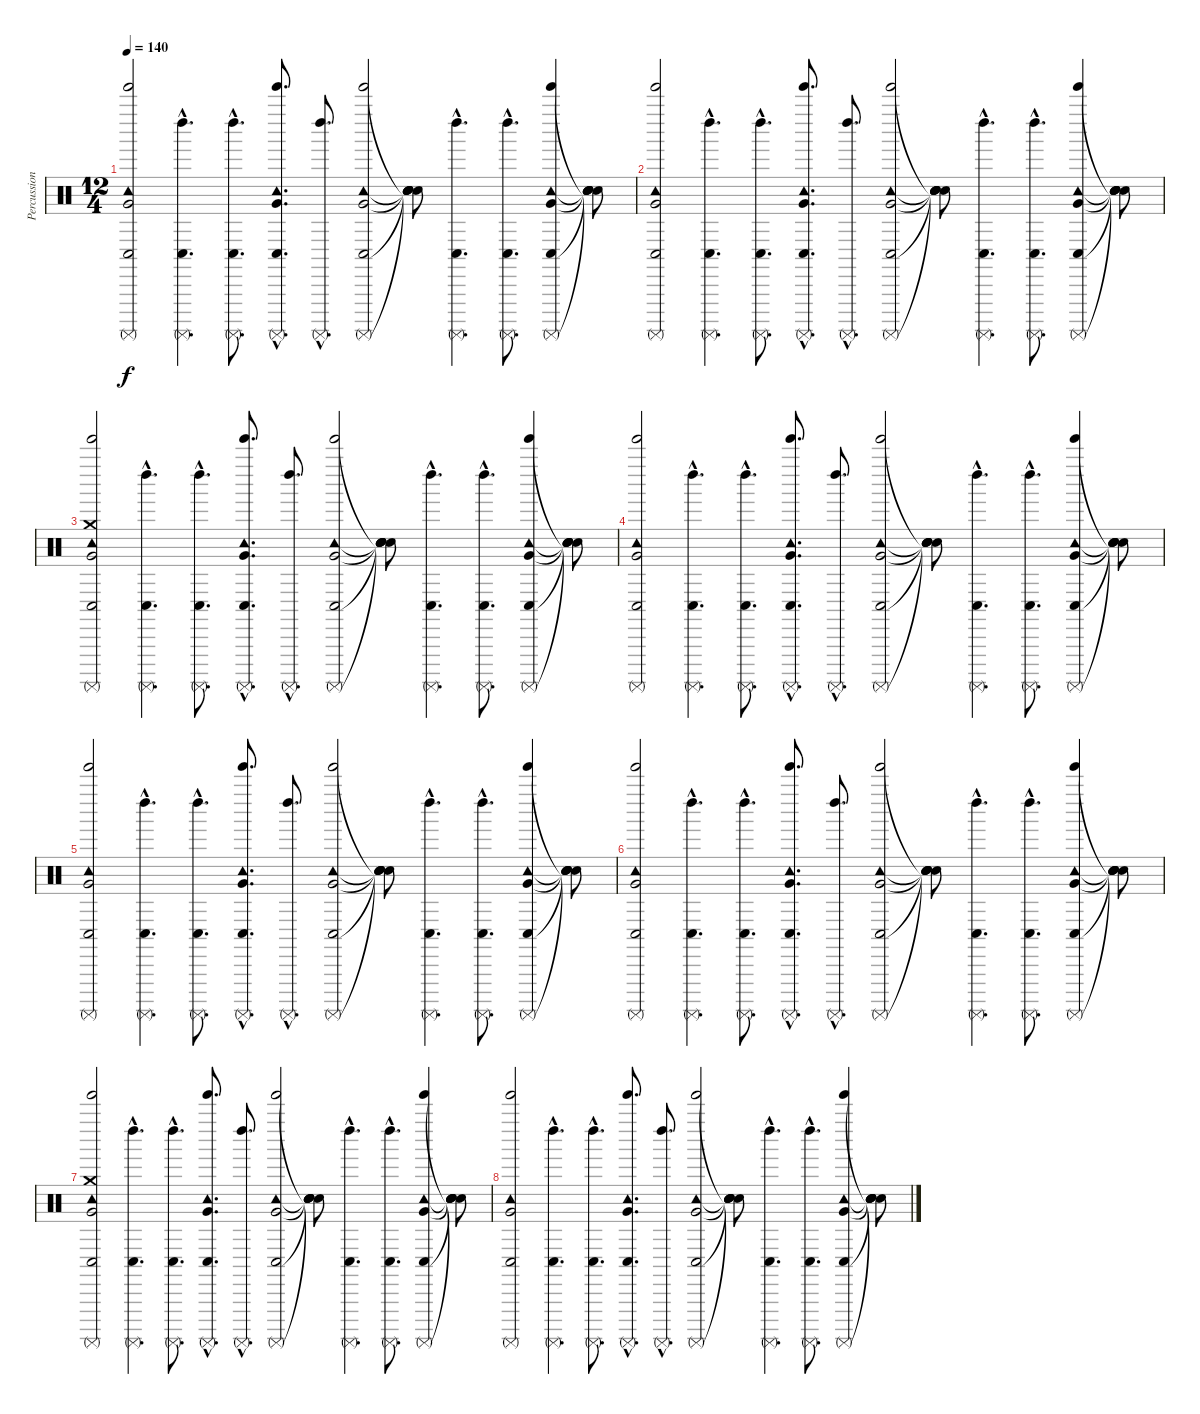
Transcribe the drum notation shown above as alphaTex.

\track ("Percussions" "Percussion") {instrument percussion}
\staff {score}
\articulation defaults
\ts (12 4)
\tempo 140
\clef neutral
\ks c
("Conga low (hit)" "Tinkle Bell (hit)" "Very Low Tom (hit)" "Tambourine (hit)" "Surdo (mute)").2{dy f} ("Conga low (hit)"{hac} "Left Maraca (hit)"{hac} "Surdo (mute)"{hac}).4{d} ("Conga low (hit)"{hac} "Left Maraca (hit)"{hac} "Surdo (mute)"{hac}).8{d} ("Conga low (hit)"{hac} "Tinkle Bell (hit)"{hac} "Very Low Tom (hit)"{hac} "Tambourine (hit)"{hac} "Surdo (mute)"{hac}).8{d} ("Left Maraca (hit)"{hac} "Surdo (mute)"{hac}).8{d} ("Conga low (hit)" "Tinkle Bell (hit)" "Very Low Tom (hit)" "Tambourine (hit)" "Surdo (mute)").2 ("Snare (hit)"{t} "Snare (hit)"{t} "Snare (hit)"{t} "Snare (hit)"{t} "Snare (hit)"{t}).8 ("Conga low (hit)"{hac} "Left Maraca (hit)"{hac} "Surdo (mute)"{hac}).4{d} ("Conga low (hit)"{hac} "Left Maraca (hit)"{hac} "Surdo (mute)"{hac}).8{d} ("Conga low (hit)" "Tinkle Bell (hit)" "Very Low Tom (hit)" "Tambourine (hit)" "Surdo (mute)").4 ("Snare (hit)"{t} "Snare (hit)"{t} "Snare (hit)"{t} "Snare (hit)"{t} "Snare (hit)"{t}).8 |
("Conga low (hit)" "Tinkle Bell (hit)" "Very Low Tom (hit)" "Tambourine (hit)" "Surdo (mute)").2 ("Conga low (hit)"{hac} "Left Maraca (hit)"{hac} "Surdo (mute)"{hac}).4{d} ("Conga low (hit)"{hac} "Left Maraca (hit)"{hac} "Surdo (mute)"{hac}).8{d} ("Conga low (hit)"{hac} "Tinkle Bell (hit)"{hac} "Very Low Tom (hit)"{hac} "Tambourine (hit)"{hac} "Surdo (mute)"{hac}).8{d} ("Left Maraca (hit)"{hac} "Surdo (mute)"{hac}).8{d} ("Conga low (hit)" "Tinkle Bell (hit)" "Very Low Tom (hit)" "Tambourine (hit)" "Surdo (mute)").2 ("Snare (hit)"{t} "Snare (hit)"{t} "Snare (hit)"{t} "Snare (hit)"{t} "Snare (hit)"{t}).8 ("Conga low (hit)"{hac} "Left Maraca (hit)"{hac} "Surdo (mute)"{hac}).4{d} ("Conga low (hit)"{hac} "Left Maraca (hit)"{hac} "Surdo (mute)"{hac}).8{d} ("Conga low (hit)" "Tinkle Bell (hit)" "Very Low Tom (hit)" "Tambourine (hit)" "Surdo (mute)").4 ("Snare (hit)"{t} "Snare (hit)"{t} "Snare (hit)"{t} "Snare (hit)"{t} "Snare (hit)"{t}).8 |
("Conga low (hit)" "Tinkle Bell (hit)" "Very Low Tom (hit)" "Tambourine (hit)" "Crash medium (hit)" "Surdo (mute)").2 ("Conga low (hit)"{hac} "Left Maraca (hit)"{hac} "Surdo (mute)"{hac}).4{d} ("Conga low (hit)"{hac} "Left Maraca (hit)"{hac} "Surdo (mute)"{hac}).8{d} ("Conga low (hit)"{hac} "Tinkle Bell (hit)"{hac} "Very Low Tom (hit)"{hac} "Tambourine (hit)"{hac} "Surdo (mute)"{hac}).8{d} ("Left Maraca (hit)"{hac} "Surdo (mute)"{hac}).8{d} ("Conga low (hit)" "Tinkle Bell (hit)" "Very Low Tom (hit)" "Tambourine (hit)" "Surdo (mute)").2 ("Snare (hit)"{t} "Snare (hit)"{t} "Snare (hit)"{t} "Snare (hit)"{t} "Snare (hit)"{t}).8 ("Conga low (hit)"{hac} "Left Maraca (hit)"{hac} "Surdo (mute)"{hac}).4{d} ("Conga low (hit)"{hac} "Left Maraca (hit)"{hac} "Surdo (mute)"{hac}).8{d} ("Conga low (hit)" "Tinkle Bell (hit)" "Very Low Tom (hit)" "Tambourine (hit)" "Surdo (mute)").4 ("Snare (hit)"{t} "Snare (hit)"{t} "Snare (hit)"{t} "Snare (hit)"{t} "Snare (hit)"{t}).8 |
("Conga low (hit)" "Tinkle Bell (hit)" "Very Low Tom (hit)" "Tambourine (hit)" "Surdo (mute)").2 ("Conga low (hit)"{hac} "Left Maraca (hit)"{hac} "Surdo (mute)"{hac}).4{d} ("Conga low (hit)"{hac} "Left Maraca (hit)"{hac} "Surdo (mute)"{hac}).8{d} ("Conga low (hit)"{hac} "Tinkle Bell (hit)"{hac} "Very Low Tom (hit)"{hac} "Tambourine (hit)"{hac} "Surdo (mute)"{hac}).8{d} ("Left Maraca (hit)"{hac} "Surdo (mute)"{hac}).8{d} ("Conga low (hit)" "Tinkle Bell (hit)" "Very Low Tom (hit)" "Tambourine (hit)" "Surdo (mute)").2 ("Snare (hit)"{t} "Snare (hit)"{t} "Snare (hit)"{t} "Snare (hit)"{t} "Snare (hit)"{t}).8 ("Conga low (hit)"{hac} "Left Maraca (hit)"{hac} "Surdo (mute)"{hac}).4{d} ("Conga low (hit)"{hac} "Left Maraca (hit)"{hac} "Surdo (mute)"{hac}).8{d} ("Conga low (hit)" "Tinkle Bell (hit)" "Very Low Tom (hit)" "Tambourine (hit)" "Surdo (mute)").4 ("Snare (hit)"{t} "Snare (hit)"{t} "Snare (hit)"{t} "Snare (hit)"{t} "Snare (hit)"{t}).8 |
("Conga low (hit)" "Tinkle Bell (hit)" "Very Low Tom (hit)" "Tambourine (hit)" "Surdo (mute)").2 ("Conga low (hit)"{hac} "Left Maraca (hit)"{hac} "Surdo (mute)"{hac}).4{d} ("Conga low (hit)"{hac} "Left Maraca (hit)"{hac} "Surdo (mute)"{hac}).8{d} ("Conga low (hit)"{hac} "Tinkle Bell (hit)"{hac} "Very Low Tom (hit)"{hac} "Tambourine (hit)"{hac} "Surdo (mute)"{hac}).8{d} ("Left Maraca (hit)"{hac} "Surdo (mute)"{hac}).8{d} ("Conga low (hit)" "Tinkle Bell (hit)" "Very Low Tom (hit)" "Tambourine (hit)" "Surdo (mute)").2 ("Snare (hit)"{t} "Snare (hit)"{t} "Snare (hit)"{t} "Snare (hit)"{t} "Snare (hit)"{t}).8 ("Conga low (hit)"{hac} "Left Maraca (hit)"{hac} "Surdo (mute)"{hac}).4{d} ("Conga low (hit)"{hac} "Left Maraca (hit)"{hac} "Surdo (mute)"{hac}).8{d} ("Conga low (hit)" "Tinkle Bell (hit)" "Very Low Tom (hit)" "Tambourine (hit)" "Surdo (mute)").4 ("Snare (hit)"{t} "Snare (hit)"{t} "Snare (hit)"{t} "Snare (hit)"{t} "Snare (hit)"{t}).8 |
("Conga low (hit)" "Tinkle Bell (hit)" "Very Low Tom (hit)" "Tambourine (hit)" "Surdo (mute)").2 ("Conga low (hit)"{hac} "Left Maraca (hit)"{hac} "Surdo (mute)"{hac}).4{d} ("Conga low (hit)"{hac} "Left Maraca (hit)"{hac} "Surdo (mute)"{hac}).8{d} ("Conga low (hit)"{hac} "Tinkle Bell (hit)"{hac} "Very Low Tom (hit)"{hac} "Tambourine (hit)"{hac} "Surdo (mute)"{hac}).8{d} ("Left Maraca (hit)"{hac} "Surdo (mute)"{hac}).8{d} ("Conga low (hit)" "Tinkle Bell (hit)" "Very Low Tom (hit)" "Tambourine (hit)" "Surdo (mute)").2 ("Snare (hit)"{t} "Snare (hit)"{t} "Snare (hit)"{t} "Snare (hit)"{t} "Snare (hit)"{t}).8 ("Conga low (hit)"{hac} "Left Maraca (hit)"{hac} "Surdo (mute)"{hac}).4{d} ("Conga low (hit)"{hac} "Left Maraca (hit)"{hac} "Surdo (mute)"{hac}).8{d} ("Conga low (hit)" "Tinkle Bell (hit)" "Very Low Tom (hit)" "Tambourine (hit)" "Surdo (mute)").4 ("Snare (hit)"{t} "Snare (hit)"{t} "Snare (hit)"{t} "Snare (hit)"{t} "Snare (hit)"{t}).8 |
("Conga low (hit)" "Tinkle Bell (hit)" "Very Low Tom (hit)" "Tambourine (hit)" "Crash medium (hit)" "Surdo (mute)").2 ("Conga low (hit)"{hac} "Left Maraca (hit)"{hac} "Surdo (mute)"{hac}).4{d} ("Conga low (hit)"{hac} "Left Maraca (hit)"{hac} "Surdo (mute)"{hac}).8{d} ("Conga low (hit)"{hac} "Tinkle Bell (hit)"{hac} "Very Low Tom (hit)"{hac} "Tambourine (hit)"{hac} "Surdo (mute)"{hac}).8{d} ("Left Maraca (hit)"{hac} "Surdo (mute)"{hac}).8{d} ("Conga low (hit)" "Tinkle Bell (hit)" "Very Low Tom (hit)" "Tambourine (hit)" "Surdo (mute)").2 ("Snare (hit)"{t} "Snare (hit)"{t} "Snare (hit)"{t} "Snare (hit)"{t} "Snare (hit)"{t}).8 ("Conga low (hit)"{hac} "Left Maraca (hit)"{hac} "Surdo (mute)"{hac}).4{d} ("Conga low (hit)"{hac} "Left Maraca (hit)"{hac} "Surdo (mute)"{hac}).8{d} ("Conga low (hit)" "Tinkle Bell (hit)" "Very Low Tom (hit)" "Tambourine (hit)" "Surdo (mute)").4 ("Snare (hit)"{t} "Snare (hit)"{t} "Snare (hit)"{t} "Snare (hit)"{t} "Snare (hit)"{t}).8 |
("Conga low (hit)" "Tinkle Bell (hit)" "Very Low Tom (hit)" "Tambourine (hit)" "Surdo (mute)").2 ("Conga low (hit)"{hac} "Left Maraca (hit)"{hac} "Surdo (mute)"{hac}).4{d} ("Conga low (hit)"{hac} "Left Maraca (hit)"{hac} "Surdo (mute)"{hac}).8{d} ("Conga low (hit)"{hac} "Tinkle Bell (hit)"{hac} "Very Low Tom (hit)"{hac} "Tambourine (hit)"{hac} "Surdo (mute)"{hac}).8{d} ("Left Maraca (hit)"{hac} "Surdo (mute)"{hac}).8{d} ("Conga low (hit)" "Tinkle Bell (hit)" "Very Low Tom (hit)" "Tambourine (hit)" "Surdo (mute)").2 ("Snare (hit)"{t} "Snare (hit)"{t} "Snare (hit)"{t} "Snare (hit)"{t} "Snare (hit)"{t}).8 ("Conga low (hit)"{hac} "Left Maraca (hit)"{hac} "Surdo (mute)"{hac}).4{d} ("Conga low (hit)"{hac} "Left Maraca (hit)"{hac} "Surdo (mute)"{hac}).8{d} ("Conga low (hit)" "Tinkle Bell (hit)" "Very Low Tom (hit)" "Tambourine (hit)" "Surdo (mute)").4 ("Snare (hit)"{t} "Snare (hit)"{t} "Snare (hit)"{t} "Snare (hit)"{t} "Snare (hit)"{t}).8
